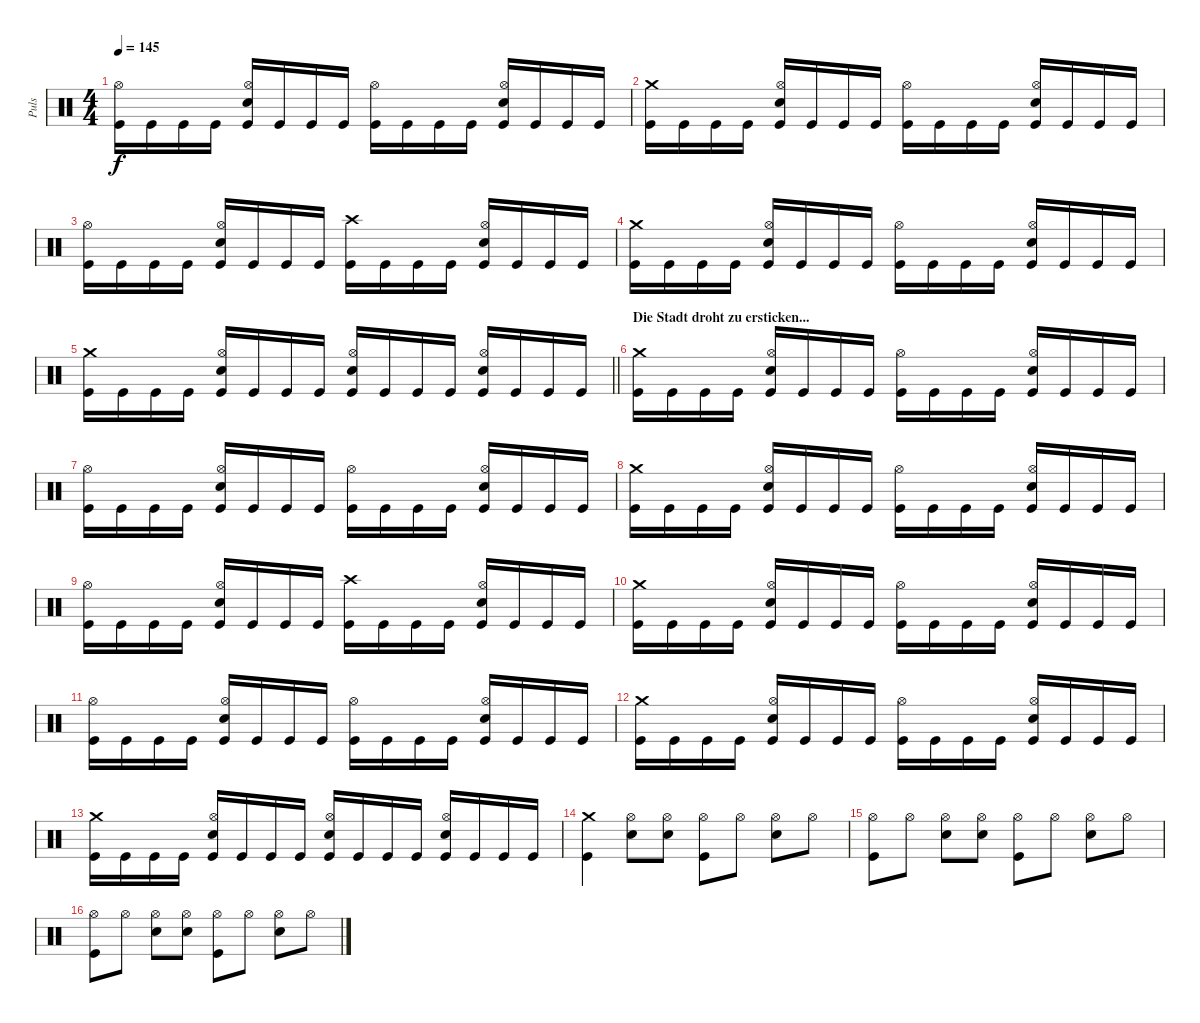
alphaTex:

\track ("Puls" "Puls") {instrument percussion}
\staff {score}
\articulation defaults
\ts (4 4)
\tempo 145
\clef neutral
\ks c
("Kick (hit)" "Hi-Hat (open)").16{dy f} "Kick (hit)".16 "Kick (hit)".16 "Kick (hit)".16 ("Kick (hit)" "Hi-Hat (open)" "Snare (hit) 2").16 "Kick (hit)".16 "Kick (hit)".16 "Kick (hit)".16 ("Kick (hit)" "Hi-Hat (open)").16 "Kick (hit)".16 "Kick (hit)".16 "Kick (hit)".16 ("Kick (hit)" "Hi-Hat (open)" "Snare (hit) 2").16 "Kick (hit)".16 "Kick (hit)".16 "Kick (hit)".16 |
("Crash medium (hit)" "Kick (hit)").16 "Kick (hit)".16 "Kick (hit)".16 "Kick (hit)".16 ("Kick (hit)" "Hi-Hat (open)" "Snare (hit) 2").16 "Kick (hit)".16 "Kick (hit)".16 "Kick (hit)".16 ("Kick (hit)" "Hi-Hat (open)").16 "Kick (hit)".16 "Kick (hit)".16 "Kick (hit)".16 ("Kick (hit)" "Hi-Hat (open)" "Snare (hit) 2").16 "Kick (hit)".16 "Kick (hit)".16 "Kick (hit)".16 |
("Kick (hit)" "Hi-Hat (open)").16 "Kick (hit)".16 "Kick (hit)".16 "Kick (hit)".16 ("Kick (hit)" "Hi-Hat (open)" "Snare (hit) 2").16 "Kick (hit)".16 "Kick (hit)".16 "Kick (hit)".16 ("Kick (hit)" "Crash high (hit)").16 "Kick (hit)".16 "Kick (hit)".16 "Kick (hit)".16 ("Kick (hit)" "Hi-Hat (open)" "Snare (hit) 2").16 "Kick (hit)".16 "Kick (hit)".16 "Kick (hit)".16 |
("Crash medium (hit)" "Kick (hit)").16 "Kick (hit)".16 "Kick (hit)".16 "Kick (hit)".16 ("Kick (hit)" "Hi-Hat (open)" "Snare (hit) 2").16 "Kick (hit)".16 "Kick (hit)".16 "Kick (hit)".16 ("Kick (hit)" "Hi-Hat (open)").16 "Kick (hit)".16 "Kick (hit)".16 "Kick (hit)".16 ("Kick (hit)" "Hi-Hat (open)" "Snare (hit) 2").16 "Kick (hit)".16 "Kick (hit)".16 "Kick (hit)".16 |
\barLineRight lightlight
("Kick (hit)" "Crash medium (hit)").16 "Kick (hit)".16 "Kick (hit)".16 "Kick (hit)".16 ("Kick (hit)" "Hi-Hat (open)" "Snare (hit) 2").16 "Kick (hit)".16 "Kick (hit)".16 "Kick (hit)".16 ("Kick (hit)" "Hi-Hat (open)" "Snare (hit) 2").16 "Kick (hit)".16 "Kick (hit)".16 "Kick (hit)".16 ("Kick (hit)" "Hi-Hat (open)" "Snare (hit) 2").16 "Kick (hit)".16 "Kick (hit)".16 "Kick (hit)".16 |
\section ("" "Die Stadt droht zu ersticken...")
("Kick (hit)" "Crash medium (hit)").16 "Kick (hit)".16 "Kick (hit)".16 "Kick (hit)".16 ("Kick (hit)" "Hi-Hat (open)" "Snare (hit) 2").16 "Kick (hit)".16 "Kick (hit)".16 "Kick (hit)".16 ("Kick (hit)" "Hi-Hat (open)").16 "Kick (hit)".16 "Kick (hit)".16 "Kick (hit)".16 ("Kick (hit)" "Hi-Hat (open)" "Snare (hit) 2").16 "Kick (hit)".16 "Kick (hit)".16 "Kick (hit)".16 |
("Kick (hit)" "Hi-Hat (open)").16 "Kick (hit)".16 "Kick (hit)".16 "Kick (hit)".16 ("Kick (hit)" "Hi-Hat (open)" "Snare (hit) 2").16 "Kick (hit)".16 "Kick (hit)".16 "Kick (hit)".16 ("Kick (hit)" "Hi-Hat (open)").16 "Kick (hit)".16 "Kick (hit)".16 "Kick (hit)".16 ("Kick (hit)" "Hi-Hat (open)" "Snare (hit) 2").16 "Kick (hit)".16 "Kick (hit)".16 "Kick (hit)".16 |
("Crash medium (hit)" "Kick (hit)").16 "Kick (hit)".16 "Kick (hit)".16 "Kick (hit)".16 ("Kick (hit)" "Hi-Hat (open)" "Snare (hit) 2").16 "Kick (hit)".16 "Kick (hit)".16 "Kick (hit)".16 ("Kick (hit)" "Hi-Hat (open)").16 "Kick (hit)".16 "Kick (hit)".16 "Kick (hit)".16 ("Kick (hit)" "Hi-Hat (open)" "Snare (hit) 2").16 "Kick (hit)".16 "Kick (hit)".16 "Kick (hit)".16 |
("Kick (hit)" "Hi-Hat (open)").16 "Kick (hit)".16 "Kick (hit)".16 "Kick (hit)".16 ("Kick (hit)" "Hi-Hat (open)" "Snare (hit) 2").16 "Kick (hit)".16 "Kick (hit)".16 "Kick (hit)".16 ("Kick (hit)" "Crash high (hit)").16 "Kick (hit)".16 "Kick (hit)".16 "Kick (hit)".16 ("Kick (hit)" "Hi-Hat (open)" "Snare (hit) 2").16 "Kick (hit)".16 "Kick (hit)".16 "Kick (hit)".16 |
("Crash medium (hit)" "Kick (hit)").16 "Kick (hit)".16 "Kick (hit)".16 "Kick (hit)".16 ("Kick (hit)" "Hi-Hat (open)" "Snare (hit) 2").16 "Kick (hit)".16 "Kick (hit)".16 "Kick (hit)".16 ("Kick (hit)" "Hi-Hat (open)").16 "Kick (hit)".16 "Kick (hit)".16 "Kick (hit)".16 ("Kick (hit)" "Hi-Hat (open)" "Snare (hit) 2").16 "Kick (hit)".16 "Kick (hit)".16 "Kick (hit)".16 |
("Kick (hit)" "Hi-Hat (open)").16 "Kick (hit)".16 "Kick (hit)".16 "Kick (hit)".16 ("Kick (hit)" "Hi-Hat (open)" "Snare (hit) 2").16 "Kick (hit)".16 "Kick (hit)".16 "Kick (hit)".16 ("Kick (hit)" "Hi-Hat (open)").16 "Kick (hit)".16 "Kick (hit)".16 "Kick (hit)".16 ("Kick (hit)" "Hi-Hat (open)" "Snare (hit) 2").16 "Kick (hit)".16 "Kick (hit)".16 "Kick (hit)".16 |
("Crash medium (hit)" "Kick (hit)").16 "Kick (hit)".16 "Kick (hit)".16 "Kick (hit)".16 ("Kick (hit)" "Hi-Hat (open)" "Snare (hit) 2").16 "Kick (hit)".16 "Kick (hit)".16 "Kick (hit)".16 ("Kick (hit)" "Hi-Hat (open)").16 "Kick (hit)".16 "Kick (hit)".16 "Kick (hit)".16 ("Kick (hit)" "Hi-Hat (open)" "Snare (hit) 2").16 "Kick (hit)".16 "Kick (hit)".16 "Kick (hit)".16 |
("Kick (hit)" "Crash medium (hit)").16 "Kick (hit)".16 "Kick (hit)".16 "Kick (hit)".16 ("Kick (hit)" "Hi-Hat (open)" "Snare (hit) 2").16 "Kick (hit)".16 "Kick (hit)".16 "Kick (hit)".16 ("Kick (hit)" "Hi-Hat (open)" "Snare (hit) 2").16 "Kick (hit)".16 "Kick (hit)".16 "Kick (hit)".16 ("Kick (hit)" "Hi-Hat (open)" "Snare (hit) 2").16 "Kick (hit)".16 "Kick (hit)".16 "Kick (hit)".16 |
("Crash medium (hit)" "Kick (hit)").4 ("Hi-Hat (open)" "Snare (hit) 2").8 ("Hi-Hat (open)" "Snare (hit) 2").8 ("Kick (hit)" "Hi-Hat (open)").8 "Hi-Hat (open)".8 ("Hi-Hat (open)" "Snare (hit) 2").8 "Hi-Hat (open)".8 |
("Hi-Hat (open)" "Kick (hit)").8 "Hi-Hat (open)".8 ("Hi-Hat (open)" "Snare (hit) 2").8 ("Hi-Hat (open)" "Snare (hit) 2").8 ("Hi-Hat (open)" "Kick (hit)").8 "Hi-Hat (open)".8 ("Hi-Hat (open)" "Snare (hit) 2").8 "Hi-Hat (open)".8 |
("Hi-Hat (open)" "Kick (hit)").8 "Hi-Hat (open)".8 ("Hi-Hat (open)" "Snare (hit) 2").8 ("Hi-Hat (open)" "Snare (hit) 2").8 ("Hi-Hat (open)" "Kick (hit)").8 "Hi-Hat (open)".8 ("Hi-Hat (open)" "Snare (hit) 2").8 "Hi-Hat (open)".8
